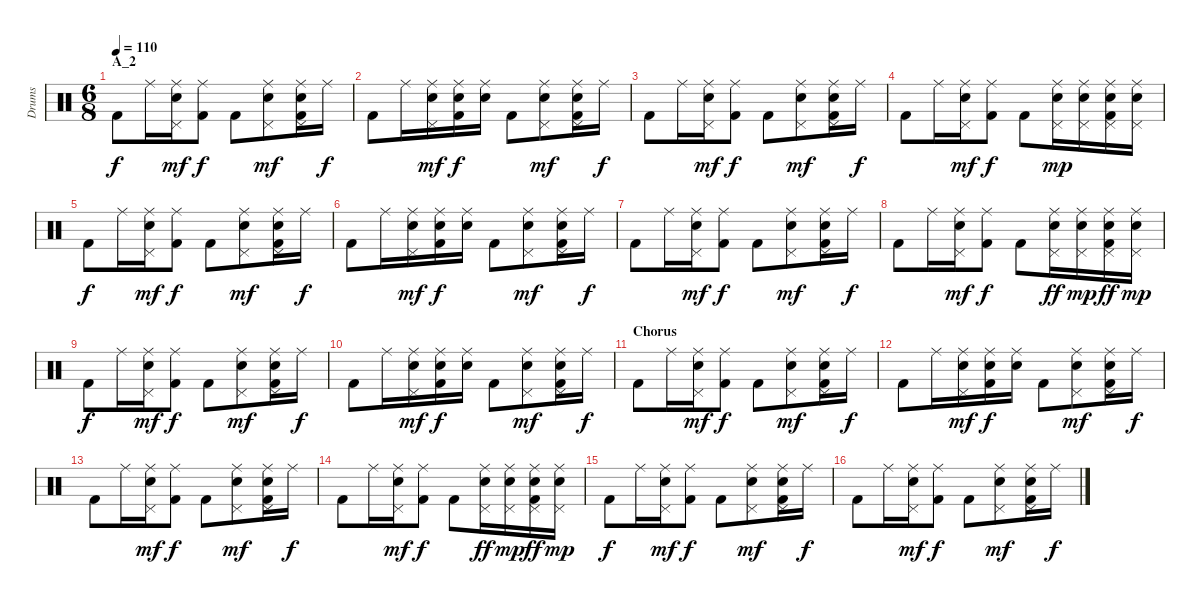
\track ("Drums" "Drums") {instrument percussion}
\staff {score}
\articulation defaults
\ts (6 8)
\section ("" "A_2")
\tempo 110
\clef neutral
\ks c "Kick (hit) 2".8{dy f} "Ride (middle)".16
("Ride (middle)" "Pedal Hi-Hat (hit)" "Electric Snare (hit)").16{dy mf} ("Ride (middle)" "Kick (hit) 2").8{dy f} "Kick (hit) 2".8 ("Ride (middle)" "Pedal Hi-Hat (hit)" "Electric Snare (hit)").8{dy mf} ("Ride (middle)" "Pedal Hi-Hat (hit)" "Electric Snare (hit)" "Kick (hit) 2").16 "Ride (middle)".16{dy f} |
"Kick (hit) 2".8 "Ride (middle)".16 ("Ride (middle)" "Pedal Hi-Hat (hit)" "Electric Snare (hit)").16{dy mf} ("Ride (middle)" "Electric Snare (hit)" "Kick (hit) 2").16{dy f} ("Ride (middle)" "Electric Snare (hit)").16 "Kick (hit) 2".8 ("Ride (middle)" "Pedal Hi-Hat (hit)" "Electric Snare (hit)").8{dy mf} ("Ride (middle)" "Pedal Hi-Hat (hit)" "Electric Snare (hit)" "Kick (hit) 2").16 "Ride (middle)".16{dy f} |
"Kick (hit) 2".8 "Ride (middle)".16 ("Ride (middle)" "Pedal Hi-Hat (hit)" "Electric Snare (hit)").16{dy mf} ("Ride (middle)" "Kick (hit) 2").8{dy f} "Kick (hit) 2".8 ("Ride (middle)" "Pedal Hi-Hat (hit)" "Electric Snare (hit)").8{dy mf} ("Ride (middle)" "Pedal Hi-Hat (hit)" "Electric Snare (hit)" "Kick (hit) 2").16 "Ride (middle)".16{dy f} |
"Kick (hit) 2".8 "Ride (middle)".16 ("Ride (middle)" "Pedal Hi-Hat (hit)" "Electric Snare (hit)").16{dy mf} ("Ride (middle)" "Kick (hit) 2").8{dy f} "Kick (hit) 2".8 ("Ride (middle)" "Pedal Hi-Hat (hit)" "Electric Snare (hit)").16{dy mp} ("Ride (middle)" "Pedal Hi-Hat (hit)" "Electric Snare (hit)").16 ("Ride (middle)" "Pedal Hi-Hat (hit)" "Electric Snare (hit)" "Kick (hit) 2").16 ("Ride (middle)" "Pedal Hi-Hat (hit)" "Electric Snare (hit)").16 |
"Kick (hit) 2".8{dy f} "Ride (middle)".16 ("Ride (middle)" "Pedal Hi-Hat (hit)" "Electric Snare (hit)").16{dy mf} ("Ride (middle)" "Kick (hit) 2").8{dy f} "Kick (hit) 2".8 ("Ride (middle)" "Pedal Hi-Hat (hit)" "Electric Snare (hit)").8{dy mf} ("Ride (middle)" "Pedal Hi-Hat (hit)" "Electric Snare (hit)" "Kick (hit) 2").16 "Ride (middle)".16{dy f} |
"Kick (hit) 2".8 "Ride (middle)".16 ("Ride (middle)" "Pedal Hi-Hat (hit)" "Electric Snare (hit)").16{dy mf} ("Ride (middle)" "Electric Snare (hit)" "Kick (hit) 2").16{dy f} ("Ride (middle)" "Electric Snare (hit)").16 "Kick (hit) 2".8 ("Ride (middle)" "Pedal Hi-Hat (hit)" "Electric Snare (hit)").8{dy mf} ("Ride (middle)" "Pedal Hi-Hat (hit)" "Electric Snare (hit)" "Kick (hit) 2").16 "Ride (middle)".16{dy f} |
"Kick (hit) 2".8 "Ride (middle)".16 ("Ride (middle)" "Pedal Hi-Hat (hit)" "Electric Snare (hit)").16{dy mf} ("Ride (middle)" "Kick (hit) 2").8{dy f} "Kick (hit) 2".8 ("Ride (middle)" "Pedal Hi-Hat (hit)" "Electric Snare (hit)").8{dy mf} ("Ride (middle)" "Pedal Hi-Hat (hit)" "Electric Snare (hit)" "Kick (hit) 2").16 "Ride (middle)".16{dy f} |
"Kick (hit) 2".8 "Ride (middle)".16 ("Ride (middle)" "Pedal Hi-Hat (hit)" "Electric Snare (hit)").16{dy mf} ("Ride (middle)" "Kick (hit) 2").8{dy f} "Kick (hit) 2".8 ("Ride (middle)" "Pedal Hi-Hat (hit)" "Electric Snare (hit)").16{dy ff} ("Ride (middle)" "Pedal Hi-Hat (hit)" "Electric Snare (hit)").16{dy mp} ("Ride (middle)" "Pedal Hi-Hat (hit)" "Electric Snare (hit)" "Kick (hit) 2").16{dy ff} ("Ride (middle)" "Pedal Hi-Hat (hit)" "Electric Snare (hit)").16{dy mp} |
"Kick (hit) 2".8{dy f} "Ride (middle)".16 ("Ride (middle)" "Pedal Hi-Hat (hit)" "Electric Snare (hit)").16{dy mf} ("Ride (middle)" "Kick (hit) 2").8{dy f} "Kick (hit) 2".8 ("Ride (middle)" "Pedal Hi-Hat (hit)" "Electric Snare (hit)").8{dy mf} ("Ride (middle)" "Pedal Hi-Hat (hit)" "Electric Snare (hit)" "Kick (hit) 2").16 "Ride (middle)".16{dy f} |
"Kick (hit) 2".8 "Ride (middle)".16 ("Ride (middle)" "Pedal Hi-Hat (hit)" "Electric Snare (hit)").16{dy mf} ("Ride (middle)" "Electric Snare (hit)" "Kick (hit) 2").16{dy f} ("Ride (middle)" "Electric Snare (hit)").16 "Kick (hit) 2".8 ("Ride (middle)" "Pedal Hi-Hat (hit)" "Electric Snare (hit)").8{dy mf} ("Ride (middle)" "Pedal Hi-Hat (hit)" "Electric Snare (hit)" "Kick (hit) 2").16 "Ride (middle)".16{dy f} |
\section ("" "Chorus")
"Kick (hit) 2".8 "Ride (middle)".16 ("Ride (middle)" "Pedal Hi-Hat (hit)" "Electric Snare (hit)").16{dy mf} ("Ride (middle)" "Kick (hit) 2").8{dy f} "Kick (hit) 2".8 ("Ride (middle)" "Pedal Hi-Hat (hit)" "Electric Snare (hit)").8{dy mf} ("Ride (middle)" "Pedal Hi-Hat (hit)" "Electric Snare (hit)" "Kick (hit) 2").16 "Ride (middle)".16{dy f} |
"Kick (hit) 2".8 "Ride (middle)".16 ("Ride (middle)" "Pedal Hi-Hat (hit)" "Electric Snare (hit)").16{dy mf} ("Ride (middle)" "Electric Snare (hit)" "Kick (hit) 2").16{dy f} ("Ride (middle)" "Electric Snare (hit)").16 "Kick (hit) 2".8 ("Ride (middle)" "Pedal Hi-Hat (hit)" "Electric Snare (hit)").8{dy mf} ("Ride (middle)" "Pedal Hi-Hat (hit)" "Electric Snare (hit)" "Kick (hit) 2").16 "Ride (middle)".16{dy f} |
"Kick (hit) 2".8 "Ride (middle)".16 ("Ride (middle)" "Pedal Hi-Hat (hit)" "Electric Snare (hit)").16{dy mf} ("Ride (middle)" "Kick (hit) 2").8{dy f} "Kick (hit) 2".8 ("Ride (middle)" "Pedal Hi-Hat (hit)" "Electric Snare (hit)").8{dy mf} ("Ride (middle)" "Pedal Hi-Hat (hit)" "Electric Snare (hit)" "Kick (hit) 2").16 "Ride (middle)".16{dy f} |
"Kick (hit) 2".8 "Ride (middle)".16 ("Ride (middle)" "Pedal Hi-Hat (hit)" "Electric Snare (hit)").16{dy mf} ("Ride (middle)" "Kick (hit) 2").8{dy f} "Kick (hit) 2".8 ("Ride (middle)" "Pedal Hi-Hat (hit)" "Electric Snare (hit)").16{dy ff} ("Ride (middle)" "Pedal Hi-Hat (hit)" "Electric Snare (hit)").16{dy mp} ("Ride (middle)" "Pedal Hi-Hat (hit)" "Electric Snare (hit)" "Kick (hit) 2").16{dy ff} ("Ride (middle)" "Pedal Hi-Hat (hit)" "Electric Snare (hit)").16{dy mp} |
"Kick (hit) 2".8{dy f} "Ride (middle)".16 ("Ride (middle)" "Pedal Hi-Hat (hit)" "Electric Snare (hit)").16{dy mf} ("Ride (middle)" "Kick (hit) 2").8{dy f} "Kick (hit) 2".8 ("Ride (middle)" "Pedal Hi-Hat (hit)" "Electric Snare (hit)").8{dy mf} ("Ride (middle)" "Pedal Hi-Hat (hit)" "Electric Snare (hit)" "Kick (hit) 2").16 "Ride (middle)".16{dy f} |
"Kick (hit) 2".8 "Ride (middle)".16 ("Ride (middle)" "Pedal Hi-Hat (hit)" "Electric Snare (hit)").16{dy mf} ("Ride (middle)" "Kick (hit) 2").8{dy f} "Kick (hit) 2".8 ("Ride (middle)" "Pedal Hi-Hat (hit)" "Electric Snare (hit)").8{dy mf} ("Ride (middle)" "Pedal Hi-Hat (hit)" "Electric Snare (hit)" "Kick (hit) 2").16 "Ride (middle)".16{dy f}
